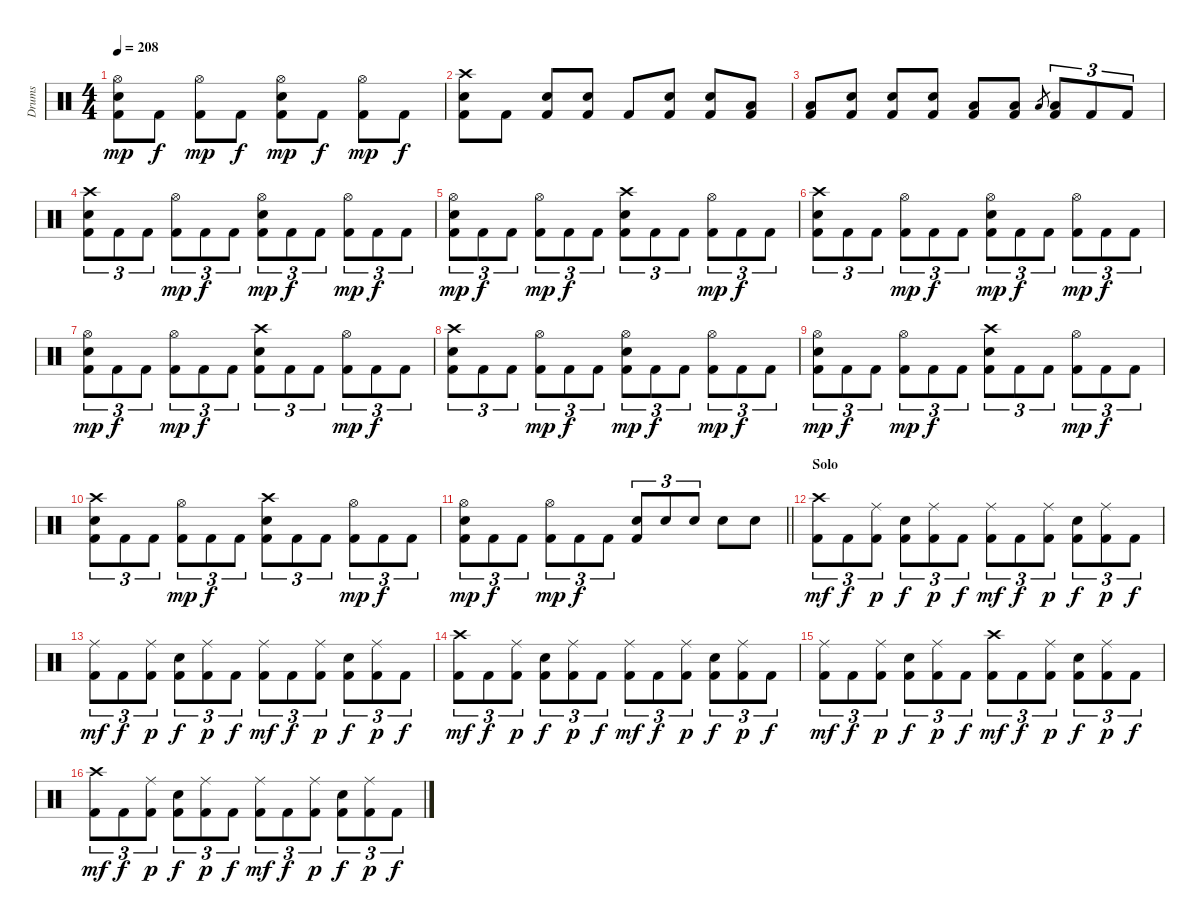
\track ("Drums" "Drums") {instrument percussion}
\staff {score}
\articulation defaults
\ts (4 4)
\tempo 208
\clef neutral
\ks c
("Hi-Hat (open)" "Electric Snare (hit)" "Kick (hit) 2").8{dy mp} "Kick (hit) 2".8{dy f} ("Hi-Hat (open)" "Kick (hit) 2").8{dy mp} "Kick (hit) 2".8{dy f} ("Hi-Hat (open)" "Electric Snare (hit)" "Kick (hit) 2").8{dy mp} "Kick (hit) 2".8{dy f} ("Hi-Hat (open)" "Kick (hit) 2").8{dy mp} "Kick (hit) 2".8{dy f} |
("Crash high (hit)" "Electric Snare (hit)" "Kick (hit) 2").8 "Kick (hit) 2".8 ("Electric Snare (hit)" "Kick (hit) 2").8 ("Electric Snare (hit)" "Kick (hit) 2").8 "Kick (hit) 2".8 ("Electric Snare (hit)" "Kick (hit) 2").8 ("Electric Snare (hit)" "Kick (hit) 2").8 ("Low Tom (hit)" "Kick (hit) 2").8 |
("Low Tom (hit)" "Kick (hit) 2").8 ("Electric Snare (hit)" "Kick (hit) 2").8 ("Electric Snare (hit)" "Kick (hit) 2").8 ("Electric Snare (hit)" "Kick (hit) 2").8 ("Low Tom (hit)" "Kick (hit) 2").8 ("Low Tom (hit)" "Kick (hit) 2").8 "Low Tom (hit)".8{gr} ("Low Tom (hit)" "Kick (hit) 2").8{tu (3 2)} "Kick (hit) 2".8{tu (3 2)} "Kick (hit) 2".8{tu (3 2)} |
("Crash high (hit)" "Electric Snare (hit)" "Kick (hit) 2").8{tu (3 2)} "Kick (hit) 2".8{tu (3 2)} "Kick (hit) 2".8{tu (3 2)} ("Hi-Hat (open)" "Kick (hit) 2").8{tu (3 2) dy mp} "Kick (hit) 2".8{tu (3 2) dy f} "Kick (hit) 2".8{tu (3 2)} ("Hi-Hat (open)" "Electric Snare (hit)" "Kick (hit) 2").8{tu (3 2) dy mp} "Kick (hit) 2".8{tu (3 2) dy f} "Kick (hit) 2".8{tu (3 2)} ("Hi-Hat (open)" "Kick (hit) 2").8{tu (3 2) dy mp} "Kick (hit) 2".8{tu (3 2) dy f} "Kick (hit) 2".8{tu (3 2)} |
("Hi-Hat (open)" "Electric Snare (hit)" "Kick (hit) 2").8{tu (3 2) dy mp} "Kick (hit) 2".8{tu (3 2) dy f} "Kick (hit) 2".8{tu (3 2)} ("Hi-Hat (open)" "Kick (hit) 2").8{tu (3 2) dy mp} "Kick (hit) 2".8{tu (3 2) dy f} "Kick (hit) 2".8{tu (3 2)} ("Crash high (hit)" "Electric Snare (hit)" "Kick (hit) 2").8{tu (3 2)} "Kick (hit) 2".8{tu (3 2)} "Kick (hit) 2".8{tu (3 2)} ("Hi-Hat (open)" "Kick (hit) 2").8{tu (3 2) dy mp} "Kick (hit) 2".8{tu (3 2) dy f} "Kick (hit) 2".8{tu (3 2)} |
("Crash high (hit)" "Electric Snare (hit)" "Kick (hit) 2").8{tu (3 2)} "Kick (hit) 2".8{tu (3 2)} "Kick (hit) 2".8{tu (3 2)} ("Hi-Hat (open)" "Kick (hit) 2").8{tu (3 2) dy mp} "Kick (hit) 2".8{tu (3 2) dy f} "Kick (hit) 2".8{tu (3 2)} ("Hi-Hat (open)" "Electric Snare (hit)" "Kick (hit) 2").8{tu (3 2) dy mp} "Kick (hit) 2".8{tu (3 2) dy f} "Kick (hit) 2".8{tu (3 2)} ("Hi-Hat (open)" "Kick (hit) 2").8{tu (3 2) dy mp} "Kick (hit) 2".8{tu (3 2) dy f} "Kick (hit) 2".8{tu (3 2)} |
("Hi-Hat (open)" "Electric Snare (hit)" "Kick (hit) 2").8{tu (3 2) dy mp} "Kick (hit) 2".8{tu (3 2) dy f} "Kick (hit) 2".8{tu (3 2)} ("Hi-Hat (open)" "Kick (hit) 2").8{tu (3 2) dy mp} "Kick (hit) 2".8{tu (3 2) dy f} "Kick (hit) 2".8{tu (3 2)} ("Crash high (hit)" "Electric Snare (hit)" "Kick (hit) 2").8{tu (3 2)} "Kick (hit) 2".8{tu (3 2)} "Kick (hit) 2".8{tu (3 2)} ("Hi-Hat (open)" "Kick (hit) 2").8{tu (3 2) dy mp} "Kick (hit) 2".8{tu (3 2) dy f} "Kick (hit) 2".8{tu (3 2)} |
("Crash high (hit)" "Electric Snare (hit)" "Kick (hit) 2").8{tu (3 2)} "Kick (hit) 2".8{tu (3 2)} "Kick (hit) 2".8{tu (3 2)} ("Hi-Hat (open)" "Kick (hit) 2").8{tu (3 2) dy mp} "Kick (hit) 2".8{tu (3 2) dy f} "Kick (hit) 2".8{tu (3 2)} ("Hi-Hat (open)" "Electric Snare (hit)" "Kick (hit) 2").8{tu (3 2) dy mp} "Kick (hit) 2".8{tu (3 2) dy f} "Kick (hit) 2".8{tu (3 2)} ("Hi-Hat (open)" "Kick (hit) 2").8{tu (3 2) dy mp} "Kick (hit) 2".8{tu (3 2) dy f} "Kick (hit) 2".8{tu (3 2)} |
("Hi-Hat (open)" "Electric Snare (hit)" "Kick (hit) 2").8{tu (3 2) dy mp} "Kick (hit) 2".8{tu (3 2) dy f} "Kick (hit) 2".8{tu (3 2)} ("Hi-Hat (open)" "Kick (hit) 2").8{tu (3 2) dy mp} "Kick (hit) 2".8{tu (3 2) dy f} "Kick (hit) 2".8{tu (3 2)} ("Crash high (hit)" "Electric Snare (hit)" "Kick (hit) 2").8{tu (3 2)} "Kick (hit) 2".8{tu (3 2)} "Kick (hit) 2".8{tu (3 2)} ("Hi-Hat (open)" "Kick (hit) 2").8{tu (3 2) dy mp} "Kick (hit) 2".8{tu (3 2) dy f} "Kick (hit) 2".8{tu (3 2)} |
("Crash high (hit)" "Electric Snare (hit)" "Kick (hit) 2").8{tu (3 2)} "Kick (hit) 2".8{tu (3 2)} "Kick (hit) 2".8{tu (3 2)} ("Hi-Hat (open)" "Kick (hit) 2").8{tu (3 2) dy mp} "Kick (hit) 2".8{tu (3 2) dy f} "Kick (hit) 2".8{tu (3 2)} ("Crash high (hit)" "Electric Snare (hit)" "Kick (hit) 2").8{tu (3 2)} "Kick (hit) 2".8{tu (3 2)} "Kick (hit) 2".8{tu (3 2)} ("Hi-Hat (open)" "Kick (hit) 2").8{tu (3 2) dy mp} "Kick (hit) 2".8{tu (3 2) dy f} "Kick (hit) 2".8{tu (3 2)} |
\barLineRight lightlight
("Hi-Hat (open)" "Electric Snare (hit)" "Kick (hit) 2").8{tu (3 2) dy mp} "Kick (hit) 2".8{tu (3 2) dy f} "Kick (hit) 2".8{tu (3 2)} ("Hi-Hat (open)" "Kick (hit) 2").8{tu (3 2) dy mp} "Kick (hit) 2".8{tu (3 2) dy f} "Kick (hit) 2".8{tu (3 2)} ("Electric Snare (hit)" "Kick (hit) 2").8{tu (3 2)} "Electric Snare (hit)".8{tu (3 2)} "Electric Snare (hit)".8{tu (3 2)} "Electric Snare (hit)".8 "Electric Snare (hit)".8 |
\section ("" "Solo")
("Crash high (hit)" "Kick (hit) 2").8{tu (3 2) dy mf} "Kick (hit) 2".8{tu (3 2) dy f} ("Ride (middle)" "Kick (hit) 2").8{tu (3 2) dy p} ("Electric Snare (hit)" "Kick (hit) 2").8{tu (3 2) dy f} ("Ride (middle)" "Kick (hit) 2").8{tu (3 2) dy p} "Kick (hit) 2".8{tu (3 2) dy f} ("Ride (middle)" "Kick (hit) 2").8{tu (3 2) dy mf} "Kick (hit) 2".8{tu (3 2) dy f} ("Ride (middle)" "Kick (hit) 2").8{tu (3 2) dy p} ("Electric Snare (hit)" "Kick (hit) 2").8{tu (3 2) dy f} ("Ride (middle)" "Kick (hit) 2").8{tu (3 2) dy p} "Kick (hit) 2".8{tu (3 2) dy f} |
("Ride (middle)" "Kick (hit) 2").8{tu (3 2) dy mf} "Kick (hit) 2".8{tu (3 2) dy f} ("Ride (middle)" "Kick (hit) 2").8{tu (3 2) dy p} ("Electric Snare (hit)" "Kick (hit) 2").8{tu (3 2) dy f} ("Ride (middle)" "Kick (hit) 2").8{tu (3 2) dy p} "Kick (hit) 2".8{tu (3 2) dy f} ("Ride (middle)" "Kick (hit) 2").8{tu (3 2) dy mf} "Kick (hit) 2".8{tu (3 2) dy f} ("Ride (middle)" "Kick (hit) 2").8{tu (3 2) dy p} ("Electric Snare (hit)" "Kick (hit) 2").8{tu (3 2) dy f} ("Ride (middle)" "Kick (hit) 2").8{tu (3 2) dy p} "Kick (hit) 2".8{tu (3 2) dy f} |
("Crash high (hit)" "Kick (hit) 2").8{tu (3 2) dy mf} "Kick (hit) 2".8{tu (3 2) dy f} ("Ride (middle)" "Kick (hit) 2").8{tu (3 2) dy p} ("Electric Snare (hit)" "Kick (hit) 2").8{tu (3 2) dy f} ("Ride (middle)" "Kick (hit) 2").8{tu (3 2) dy p} "Kick (hit) 2".8{tu (3 2) dy f} ("Ride (middle)" "Kick (hit) 2").8{tu (3 2) dy mf} "Kick (hit) 2".8{tu (3 2) dy f} ("Ride (middle)" "Kick (hit) 2").8{tu (3 2) dy p} ("Electric Snare (hit)" "Kick (hit) 2").8{tu (3 2) dy f} ("Ride (middle)" "Kick (hit) 2").8{tu (3 2) dy p} "Kick (hit) 2".8{tu (3 2) dy f} |
("Ride (middle)" "Kick (hit) 2").8{tu (3 2) dy mf} "Kick (hit) 2".8{tu (3 2) dy f} ("Ride (middle)" "Kick (hit) 2").8{tu (3 2) dy p} ("Electric Snare (hit)" "Kick (hit) 2").8{tu (3 2) dy f} ("Ride (middle)" "Kick (hit) 2").8{tu (3 2) dy p} "Kick (hit) 2".8{tu (3 2) dy f} ("Crash high (hit)" "Kick (hit) 2").8{tu (3 2) dy mf} "Kick (hit) 2".8{tu (3 2) dy f} ("Ride (middle)" "Kick (hit) 2").8{tu (3 2) dy p} ("Electric Snare (hit)" "Kick (hit) 2").8{tu (3 2) dy f} ("Ride (middle)" "Kick (hit) 2").8{tu (3 2) dy p} "Kick (hit) 2".8{tu (3 2) dy f} |
("Crash high (hit)" "Kick (hit) 2").8{tu (3 2) dy mf} "Kick (hit) 2".8{tu (3 2) dy f} ("Ride (middle)" "Kick (hit) 2").8{tu (3 2) dy p} ("Electric Snare (hit)" "Kick (hit) 2").8{tu (3 2) dy f} ("Ride (middle)" "Kick (hit) 2").8{tu (3 2) dy p} "Kick (hit) 2".8{tu (3 2) dy f} ("Ride (middle)" "Kick (hit) 2").8{tu (3 2) dy mf} "Kick (hit) 2".8{tu (3 2) dy f} ("Ride (middle)" "Kick (hit) 2").8{tu (3 2) dy p} ("Electric Snare (hit)" "Kick (hit) 2").8{tu (3 2) dy f} ("Ride (middle)" "Kick (hit) 2").8{tu (3 2) dy p} "Kick (hit) 2".8{tu (3 2) dy f}
